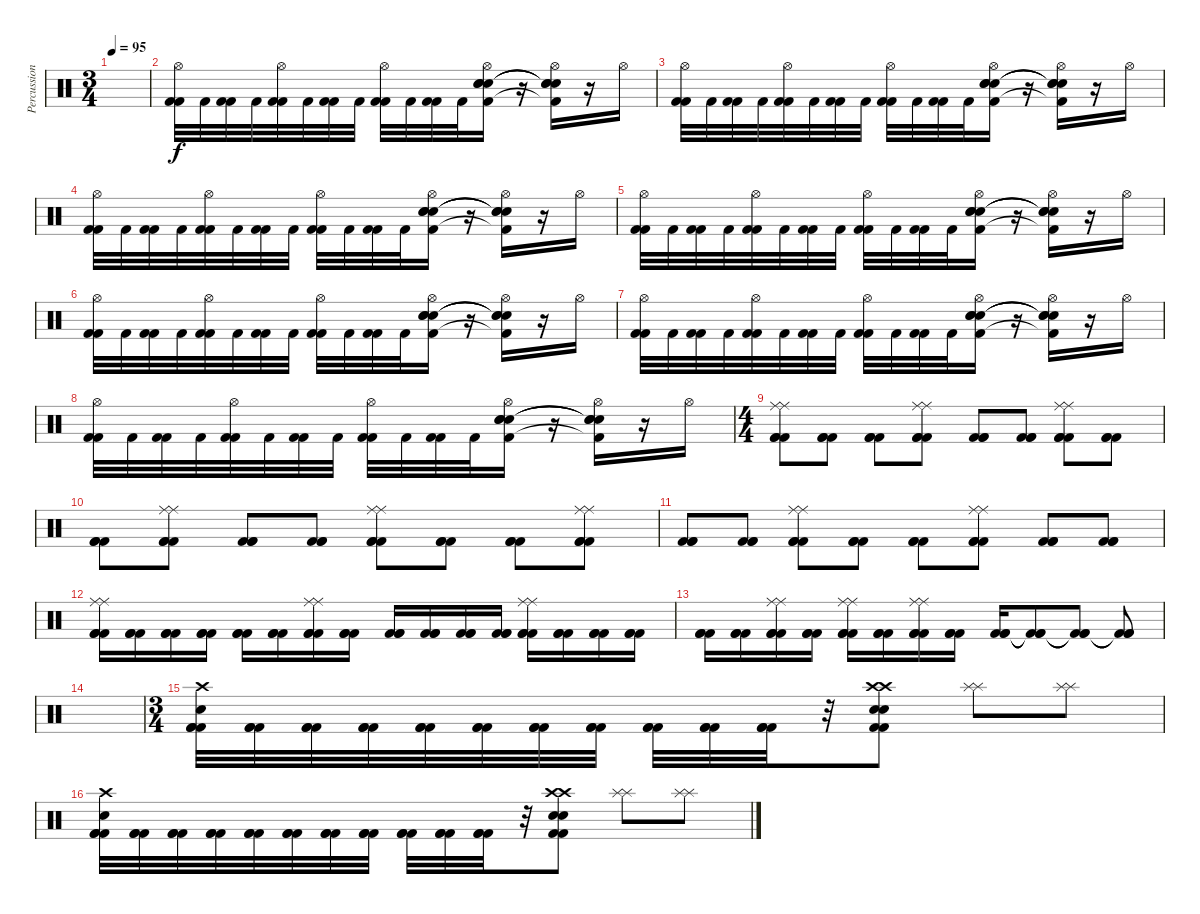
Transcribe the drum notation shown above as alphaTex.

\track ("Percussion" "Percussion") {instrument percussion}
\staff {score}
\articulation defaults
\ts (3 4)
\tempo 95
\clef neutral
\ks c
|
("Hi-Hat (open)" "Kick (hit) 2" "Kick (hit) 2").32 "Kick (hit) 2".32 ("Kick (hit) 2" "Kick (hit) 2").32 "Kick (hit) 2".32 ("Hi-Hat (open)" "Kick (hit) 2" "Kick (hit) 2").32 "Kick (hit) 2".32 ("Kick (hit) 2" "Kick (hit) 2").32 "Kick (hit) 2".32 ("Hi-Hat (open)" "Kick (hit) 2" "Kick (hit) 2").32 "Kick (hit) 2".32 ("Kick (hit) 2" "Kick (hit) 2").32 "Kick (hit) 2".32 ("Hi-Hat (open)" "Snare (hit) 2" "Snare (hit) 2" "Snare (hit) 2" "Kick (hit) 2").16 r.16 ("Hi-Hat (open)" "Snare (hit) 2"{t} "Snare (hit) 2"{t} "Snare (hit) 2"{t} "Kick (hit) 2"{t}).16 r.16 "Hi-Hat (open)".16 |
("Hi-Hat (open)" "Kick (hit) 2" "Kick (hit) 2").32 "Kick (hit) 2".32 ("Kick (hit) 2" "Kick (hit) 2").32 "Kick (hit) 2".32 ("Hi-Hat (open)" "Kick (hit) 2" "Kick (hit) 2").32 "Kick (hit) 2".32 ("Kick (hit) 2" "Kick (hit) 2").32 "Kick (hit) 2".32 ("Hi-Hat (open)" "Kick (hit) 2" "Kick (hit) 2").32 "Kick (hit) 2".32 ("Kick (hit) 2" "Kick (hit) 2").32 "Kick (hit) 2".32 ("Hi-Hat (open)" "Snare (hit) 2" "Snare (hit) 2" "Snare (hit) 2" "Kick (hit) 2").16 r.16 ("Hi-Hat (open)" "Snare (hit) 2"{t} "Snare (hit) 2"{t} "Snare (hit) 2"{t} "Kick (hit) 2"{t}).16 r.16 "Hi-Hat (open)".16 |
("Hi-Hat (open)" "Kick (hit) 2" "Kick (hit) 2").32 "Kick (hit) 2".32 ("Kick (hit) 2" "Kick (hit) 2").32 "Kick (hit) 2".32 ("Hi-Hat (open)" "Kick (hit) 2" "Kick (hit) 2").32 "Kick (hit) 2".32 ("Kick (hit) 2" "Kick (hit) 2").32 "Kick (hit) 2".32 ("Hi-Hat (open)" "Kick (hit) 2" "Kick (hit) 2").32 "Kick (hit) 2".32 ("Kick (hit) 2" "Kick (hit) 2").32 "Kick (hit) 2".32 ("Hi-Hat (open)" "Snare (hit) 2" "Snare (hit) 2" "Snare (hit) 2" "Kick (hit) 2").16 r.16 ("Hi-Hat (open)" "Snare (hit) 2"{t} "Snare (hit) 2"{t} "Snare (hit) 2"{t} "Kick (hit) 2"{t}).16 r.16 "Hi-Hat (open)".16 |
("Hi-Hat (open)" "Kick (hit) 2" "Kick (hit) 2").32 "Kick (hit) 2".32 ("Kick (hit) 2" "Kick (hit) 2").32 "Kick (hit) 2".32 ("Hi-Hat (open)" "Kick (hit) 2" "Kick (hit) 2").32 "Kick (hit) 2".32 ("Kick (hit) 2" "Kick (hit) 2").32 "Kick (hit) 2".32 ("Hi-Hat (open)" "Kick (hit) 2" "Kick (hit) 2").32 "Kick (hit) 2".32 ("Kick (hit) 2" "Kick (hit) 2").32 "Kick (hit) 2".32 ("Hi-Hat (open)" "Snare (hit) 2" "Snare (hit) 2" "Snare (hit) 2" "Kick (hit) 2").16 r.16 ("Hi-Hat (open)" "Snare (hit) 2"{t} "Snare (hit) 2"{t} "Snare (hit) 2"{t} "Kick (hit) 2"{t}).16 r.16 "Hi-Hat (open)".16 |
("Hi-Hat (open)" "Kick (hit) 2" "Kick (hit) 2").32 "Kick (hit) 2".32 ("Kick (hit) 2" "Kick (hit) 2").32 "Kick (hit) 2".32 ("Hi-Hat (open)" "Kick (hit) 2" "Kick (hit) 2").32 "Kick (hit) 2".32 ("Kick (hit) 2" "Kick (hit) 2").32 "Kick (hit) 2".32 ("Hi-Hat (open)" "Kick (hit) 2" "Kick (hit) 2").32 "Kick (hit) 2".32 ("Kick (hit) 2" "Kick (hit) 2").32 "Kick (hit) 2".32 ("Hi-Hat (open)" "Snare (hit) 2" "Snare (hit) 2" "Snare (hit) 2" "Kick (hit) 2").16 r.16 ("Hi-Hat (open)" "Snare (hit) 2"{t} "Snare (hit) 2"{t} "Snare (hit) 2"{t} "Kick (hit) 2"{t}).16 r.16 "Hi-Hat (open)".16 |
("Hi-Hat (open)" "Kick (hit) 2" "Kick (hit) 2").32 "Kick (hit) 2".32 ("Kick (hit) 2" "Kick (hit) 2").32 "Kick (hit) 2".32 ("Hi-Hat (open)" "Kick (hit) 2" "Kick (hit) 2").32 "Kick (hit) 2".32 ("Kick (hit) 2" "Kick (hit) 2").32 "Kick (hit) 2".32 ("Hi-Hat (open)" "Kick (hit) 2" "Kick (hit) 2").32 "Kick (hit) 2".32 ("Kick (hit) 2" "Kick (hit) 2").32 "Kick (hit) 2".32 ("Hi-Hat (open)" "Snare (hit) 2" "Snare (hit) 2" "Snare (hit) 2" "Kick (hit) 2").16 r.16 ("Hi-Hat (open)" "Snare (hit) 2"{t} "Snare (hit) 2"{t} "Snare (hit) 2"{t} "Kick (hit) 2"{t}).16 r.16 "Hi-Hat (open)".16 |
("Hi-Hat (open)" "Kick (hit) 2" "Kick (hit) 2").32 "Kick (hit) 2".32 ("Kick (hit) 2" "Kick (hit) 2").32 "Kick (hit) 2".32 ("Hi-Hat (open)" "Kick (hit) 2" "Kick (hit) 2").32 "Kick (hit) 2".32 ("Kick (hit) 2" "Kick (hit) 2").32 "Kick (hit) 2".32 ("Hi-Hat (open)" "Kick (hit) 2" "Kick (hit) 2").32 "Kick (hit) 2".32 ("Kick (hit) 2" "Kick (hit) 2").32 "Kick (hit) 2".32 ("Hi-Hat (open)" "Snare (hit) 2" "Snare (hit) 2" "Snare (hit) 2" "Kick (hit) 2").16 r.16 ("Hi-Hat (open)" "Snare (hit) 2"{t} "Snare (hit) 2"{t} "Snare (hit) 2"{t} "Kick (hit) 2"{t}).16 r.16 "Hi-Hat (open)".16 |
\ts (4 4)
("Ride (middle)" "Ride (middle)" "Kick (hit) 2" "Kick (hit) 2" "Kick (hit) 2").8 ("Kick (hit) 2" "Kick (hit) 2" "Kick (hit) 2").8 ("Kick (hit) 2" "Kick (hit) 2" "Kick (hit) 2").8 ("Ride (middle)" "Ride (middle)" "Kick (hit) 2" "Kick (hit) 2" "Kick (hit) 2").8 ("Kick (hit) 2" "Kick (hit) 2" "Kick (hit) 2").8 ("Kick (hit) 2" "Kick (hit) 2" "Kick (hit) 2").8 ("Ride (middle)" "Ride (middle)" "Kick (hit) 2" "Kick (hit) 2" "Kick (hit) 2").8 ("Kick (hit) 2" "Kick (hit) 2" "Kick (hit) 2").8 |
("Kick (hit) 2" "Kick (hit) 2" "Kick (hit) 2").8 ("Ride (middle)" "Ride (middle)" "Kick (hit) 2" "Kick (hit) 2" "Kick (hit) 2").8 ("Kick (hit) 2" "Kick (hit) 2" "Kick (hit) 2").8 ("Kick (hit) 2" "Kick (hit) 2" "Kick (hit) 2").8 ("Ride (middle)" "Ride (middle)" "Kick (hit) 2" "Kick (hit) 2" "Kick (hit) 2").8 ("Kick (hit) 2" "Kick (hit) 2" "Kick (hit) 2").8 ("Kick (hit) 2" "Kick (hit) 2" "Kick (hit) 2").8 ("Ride (middle)" "Ride (middle)" "Kick (hit) 2" "Kick (hit) 2" "Kick (hit) 2").8 |
("Kick (hit) 2" "Kick (hit) 2" "Kick (hit) 2").8 ("Kick (hit) 2" "Kick (hit) 2" "Kick (hit) 2").8 ("Ride (middle)" "Ride (middle)" "Kick (hit) 2" "Kick (hit) 2" "Kick (hit) 2").8 ("Kick (hit) 2" "Kick (hit) 2" "Kick (hit) 2").8 ("Kick (hit) 2" "Kick (hit) 2" "Kick (hit) 2").8 ("Ride (middle)" "Ride (middle)" "Kick (hit) 2" "Kick (hit) 2" "Kick (hit) 2").8 ("Kick (hit) 2" "Kick (hit) 2" "Kick (hit) 2").8 ("Kick (hit) 2" "Kick (hit) 2" "Kick (hit) 2").8 |
("Ride (middle)" "Ride (middle)" "Kick (hit) 2" "Kick (hit) 2" "Kick (hit) 2").16 ("Kick (hit) 2" "Kick (hit) 2" "Kick (hit) 2").16 ("Kick (hit) 2" "Kick (hit) 2" "Kick (hit) 2").16 ("Kick (hit) 2" "Kick (hit) 2" "Kick (hit) 2").16 ("Kick (hit) 2" "Kick (hit) 2" "Kick (hit) 2").16 ("Kick (hit) 2" "Kick (hit) 2" "Kick (hit) 2").16 ("Ride (middle)" "Ride (middle)" "Kick (hit) 2" "Kick (hit) 2" "Kick (hit) 2").16 ("Kick (hit) 2" "Kick (hit) 2" "Kick (hit) 2").16 ("Kick (hit) 2" "Kick (hit) 2" "Kick (hit) 2").16 ("Kick (hit) 2" "Kick (hit) 2" "Kick (hit) 2").16 ("Kick (hit) 2" "Kick (hit) 2" "Kick (hit) 2").16 ("Kick (hit) 2" "Kick (hit) 2" "Kick (hit) 2").16 ("Ride (middle)" "Ride (middle)" "Kick (hit) 2" "Kick (hit) 2" "Kick (hit) 2").16 ("Kick (hit) 2" "Kick (hit) 2" "Kick (hit) 2").16 ("Kick (hit) 2" "Kick (hit) 2" "Kick (hit) 2").16 ("Kick (hit) 2" "Kick (hit) 2" "Kick (hit) 2").16 |
("Kick (hit) 2" "Kick (hit) 2" "Kick (hit) 2").16 ("Kick (hit) 2" "Kick (hit) 2" "Kick (hit) 2").16 ("Ride (middle)" "Ride (middle)" "Kick (hit) 2" "Kick (hit) 2" "Kick (hit) 2").16 ("Kick (hit) 2" "Kick (hit) 2" "Kick (hit) 2").16 ("Ride (middle)" "Ride (middle)" "Kick (hit) 2" "Kick (hit) 2" "Kick (hit) 2").16 ("Kick (hit) 2" "Kick (hit) 2" "Kick (hit) 2").16 ("Ride (middle)" "Ride (middle)" "Kick (hit) 2" "Kick (hit) 2" "Kick (hit) 2").16 ("Kick (hit) 2" "Kick (hit) 2" "Kick (hit) 2").16 ("Kick (hit) 2" "Kick (hit) 2" "Kick (hit) 2").16 ("Kick (hit) 2"{t} "Kick (hit) 2"{t} "Kick (hit) 2"{t}).8 ("Kick (hit) 2"{t} "Kick (hit) 2"{t} "Kick (hit) 2"{t}).8 ("Kick (hit) 2"{t} "Kick (hit) 2"{t} "Kick (hit) 2"{t}).8 |
|
\ts (3 4)
("Crash high (hit)" "Snare (hit) 2" "Kick (hit) 2" "Kick (hit) 2" "Kick (hit) 2").32 ("Kick (hit) 2" "Kick (hit) 2" "Kick (hit) 2").32 ("Kick (hit) 2" "Kick (hit) 2" "Kick (hit) 2").32 ("Kick (hit) 2" "Kick (hit) 2" "Kick (hit) 2").32 ("Kick (hit) 2" "Kick (hit) 2" "Kick (hit) 2").32 ("Kick (hit) 2" "Kick (hit) 2" "Kick (hit) 2").32 ("Kick (hit) 2" "Kick (hit) 2" "Kick (hit) 2").32 ("Kick (hit) 2" "Kick (hit) 2" "Kick (hit) 2").32 ("Kick (hit) 2" "Kick (hit) 2" "Kick (hit) 2").32 ("Kick (hit) 2" "Kick (hit) 2" "Kick (hit) 2").32 ("Kick (hit) 2" "Kick (hit) 2" "Kick (hit) 2").32 r.32 ("Crash high (hit)" "Crash high (hit)" "Snare (hit) 2" "Snare (hit) 2" "Kick (hit) 2" "Kick (hit) 2").8 ("Splash (hit)" "Splash (hit)").8 ("Splash (hit)" "Splash (hit)").8 |
("Crash high (hit)" "Snare (hit) 2" "Kick (hit) 2" "Kick (hit) 2" "Kick (hit) 2").32 ("Kick (hit) 2" "Kick (hit) 2" "Kick (hit) 2").32 ("Kick (hit) 2" "Kick (hit) 2" "Kick (hit) 2").32 ("Kick (hit) 2" "Kick (hit) 2" "Kick (hit) 2").32 ("Kick (hit) 2" "Kick (hit) 2" "Kick (hit) 2").32 ("Kick (hit) 2" "Kick (hit) 2" "Kick (hit) 2").32 ("Kick (hit) 2" "Kick (hit) 2" "Kick (hit) 2").32 ("Kick (hit) 2" "Kick (hit) 2" "Kick (hit) 2").32 ("Kick (hit) 2" "Kick (hit) 2" "Kick (hit) 2").32 ("Kick (hit) 2" "Kick (hit) 2" "Kick (hit) 2").32 ("Kick (hit) 2" "Kick (hit) 2" "Kick (hit) 2").32 r.32 ("Crash high (hit)" "Crash high (hit)" "Snare (hit) 2" "Snare (hit) 2" "Kick (hit) 2" "Kick (hit) 2").8 ("Splash (hit)" "Splash (hit)").8 ("Splash (hit)" "Splash (hit)").8
